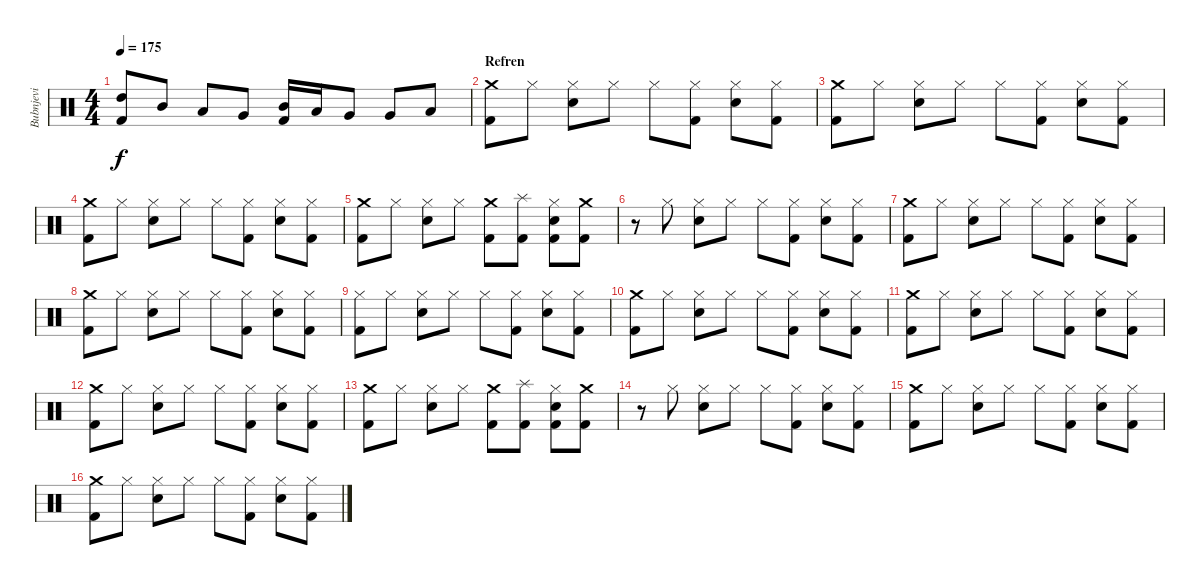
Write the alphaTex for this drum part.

\track ("Bubnjevi" "Bubnjevi") {instrument percussion}
\staff {score}
\articulation defaults
\ts (4 4)
\tempo 175
\clef neutral
\ks c
("High Tom (hit)" "Kick (hit) 2").8{dy f} "Mid Tom (hit)".8 "Low Tom (hit)".8 "Very Low Tom (hit)".8 ("Mid Tom (hit)" "Kick (hit) 2").16 "Low Tom (hit)".16 "Very Low Tom (hit)".8 "Very Low Tom (hit)".8 "Low Floor Tom (hit)".8 |
\section ("" "Refren")
("Crash medium (hit)" "Kick (hit) 2").8 "Hi-Hat (closed)".8 ("Electric Snare (hit)" "Hi-Hat (closed)").8 "Hi-Hat (closed)".8 "Hi-Hat (closed)".8 ("Hi-Hat (closed)" "Kick (hit) 2").8 ("Electric Snare (hit)" "Hi-Hat (closed)").8 ("Hi-Hat (closed)" "Kick (hit) 2").8 |
("Crash medium (hit)" "Kick (hit) 2").8 "Hi-Hat (closed)".8 ("Electric Snare (hit)" "Hi-Hat (closed)").8 "Hi-Hat (closed)".8 "Hi-Hat (closed)".8 ("Hi-Hat (closed)" "Kick (hit) 2").8 ("Electric Snare (hit)" "Hi-Hat (closed)").8 ("Hi-Hat (closed)" "Kick (hit) 2").8 |
("Crash medium (hit)" "Kick (hit) 2").8 "Hi-Hat (closed)".8 ("Electric Snare (hit)" "Hi-Hat (closed)").8 "Hi-Hat (closed)".8 "Hi-Hat (closed)".8 ("Hi-Hat (closed)" "Kick (hit) 2").8 ("Electric Snare (hit)" "Hi-Hat (closed)").8 ("Hi-Hat (closed)" "Kick (hit) 2").8 |
("Crash medium (hit)" "Kick (hit) 2").8 "Hi-Hat (closed)".8 ("Electric Snare (hit)" "Hi-Hat (closed)").8 "Hi-Hat (closed)".8 ("Crash medium (hit)" "Kick (hit) 2").8 ("Splash (hit)" "Kick (hit) 2").8 ("Electric Snare (hit)" "Hi-Hat (closed)" "Kick (hit) 2").8 ("Crash medium (hit)" "Kick (hit) 2").8 |
r.8 "Hi-Hat (closed)".8 ("Electric Snare (hit)" "Hi-Hat (closed)").8 "Hi-Hat (closed)".8 "Hi-Hat (closed)".8 ("Hi-Hat (closed)" "Kick (hit) 2").8 ("Electric Snare (hit)" "Hi-Hat (closed)").8 ("Hi-Hat (closed)" "Kick (hit) 2").8 |
("Crash medium (hit)" "Kick (hit) 2").8 "Hi-Hat (closed)".8 ("Electric Snare (hit)" "Hi-Hat (closed)").8 "Hi-Hat (closed)".8 "Hi-Hat (closed)".8 ("Hi-Hat (closed)" "Kick (hit) 2").8 ("Electric Snare (hit)" "Hi-Hat (closed)").8 ("Hi-Hat (closed)" "Kick (hit) 2").8 |
("Crash medium (hit)" "Kick (hit) 2").8 "Hi-Hat (closed)".8 ("Electric Snare (hit)" "Hi-Hat (closed)").8 "Hi-Hat (closed)".8 "Hi-Hat (closed)".8 ("Hi-Hat (closed)" "Kick (hit) 2").8 ("Electric Snare (hit)" "Hi-Hat (closed)").8 ("Hi-Hat (closed)" "Kick (hit) 2").8 |
("Hi-Hat (closed)" "Kick (hit) 2").8 "Hi-Hat (closed)".8 ("Electric Snare (hit)" "Hi-Hat (closed)").8 "Hi-Hat (closed)".8 "Hi-Hat (closed)".8 ("Hi-Hat (closed)" "Kick (hit) 2").8 ("Electric Snare (hit)" "Hi-Hat (closed)").8 ("Hi-Hat (closed)" "Kick (hit) 2").8 |
("Crash medium (hit)" "Kick (hit) 2").8 "Hi-Hat (closed)".8 ("Electric Snare (hit)" "Hi-Hat (closed)").8 "Hi-Hat (closed)".8 "Hi-Hat (closed)".8 ("Hi-Hat (closed)" "Kick (hit) 2").8 ("Electric Snare (hit)" "Hi-Hat (closed)").8 ("Hi-Hat (closed)" "Kick (hit) 2").8 |
("Crash medium (hit)" "Kick (hit) 2").8 "Hi-Hat (closed)".8 ("Electric Snare (hit)" "Hi-Hat (closed)").8 "Hi-Hat (closed)".8 "Hi-Hat (closed)".8 ("Hi-Hat (closed)" "Kick (hit) 2").8 ("Electric Snare (hit)" "Hi-Hat (closed)").8 ("Hi-Hat (closed)" "Kick (hit) 2").8 |
("Crash medium (hit)" "Kick (hit) 2").8 "Hi-Hat (closed)".8 ("Electric Snare (hit)" "Hi-Hat (closed)").8 "Hi-Hat (closed)".8 "Hi-Hat (closed)".8 ("Hi-Hat (closed)" "Kick (hit) 2").8 ("Electric Snare (hit)" "Hi-Hat (closed)").8 ("Hi-Hat (closed)" "Kick (hit) 2").8 |
("Crash medium (hit)" "Kick (hit) 2").8 "Hi-Hat (closed)".8 ("Electric Snare (hit)" "Hi-Hat (closed)").8 "Hi-Hat (closed)".8 ("Crash medium (hit)" "Kick (hit) 2").8 ("Splash (hit)" "Kick (hit) 2").8 ("Electric Snare (hit)" "Hi-Hat (closed)" "Kick (hit) 2").8 ("Crash medium (hit)" "Kick (hit) 2").8 |
r.8 "Hi-Hat (closed)".8 ("Electric Snare (hit)" "Hi-Hat (closed)").8 "Hi-Hat (closed)".8 "Hi-Hat (closed)".8 ("Hi-Hat (closed)" "Kick (hit) 2").8 ("Electric Snare (hit)" "Hi-Hat (closed)").8 ("Hi-Hat (closed)" "Kick (hit) 2").8 |
("Crash medium (hit)" "Kick (hit) 2").8 "Hi-Hat (closed)".8 ("Electric Snare (hit)" "Hi-Hat (closed)").8 "Hi-Hat (closed)".8 "Hi-Hat (closed)".8 ("Hi-Hat (closed)" "Kick (hit) 2").8 ("Electric Snare (hit)" "Hi-Hat (closed)").8 ("Hi-Hat (closed)" "Kick (hit) 2").8 |
("Crash medium (hit)" "Kick (hit) 2").8 "Hi-Hat (closed)".8 ("Electric Snare (hit)" "Hi-Hat (closed)").8 "Hi-Hat (closed)".8 "Hi-Hat (closed)".8 ("Hi-Hat (closed)" "Kick (hit) 2").8 ("Electric Snare (hit)" "Hi-Hat (closed)").8 ("Hi-Hat (closed)" "Kick (hit) 2").8
